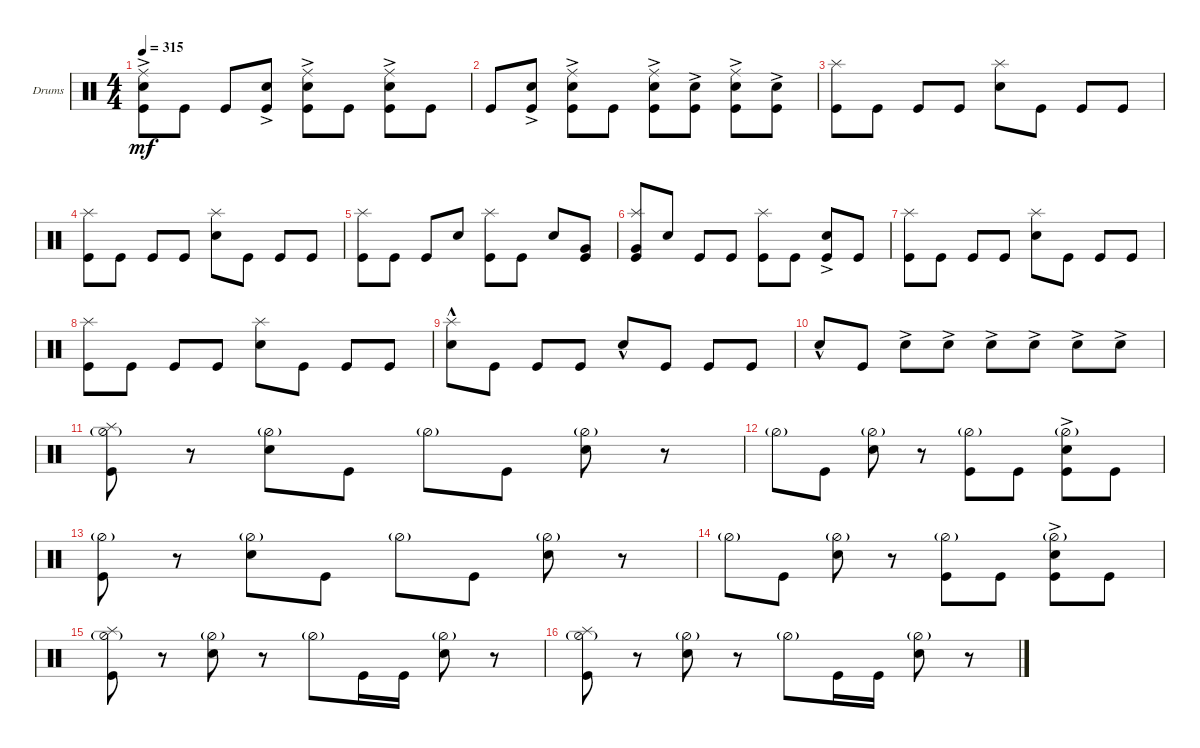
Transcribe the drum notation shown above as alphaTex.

\bracketExtendMode groupsimilarinstruments
\firstSystemTrackNameOrientation horizontal
\otherSystemsTrackNameOrientation horizontal
\track ("Drumkit" "Drums") {instrument percussion}
\staff {score}
\articulation defaults
\ts (4 4)
\tempo 315
\clef neutral
\ks c
("Snare (hit) 2"{ac} "Kick (hit)" "Ride (middle)").8{dy mf} "Kick (hit)".8 "Kick (hit)".8 ("Snare (hit) 2"{ac} "Kick (hit)").8 ("Snare (hit) 2"{ac} "Kick (hit)" "Ride (middle)").8 "Kick (hit)".8 ("Snare (hit) 2"{ac} "Kick (hit)" "Ride (middle)").8 "Kick (hit)".8 |
"Kick (hit)".8 ("Snare (hit) 2"{ac} "Kick (hit)").8 ("Snare (hit) 2"{ac} "Kick (hit)" "Ride (middle)").8 "Kick (hit)".8 ("Snare (hit) 2"{ac} "Kick (hit)" "Ride (middle)").8 ("Kick (hit)" "Snare (hit) 2"{ac}).8 ("Snare (hit) 2"{ac} "Kick (hit)" "Ride (middle)").8 ("Kick (hit)" "Snare (hit) 2"{ac}).8 |
("Kick (hit)" "Splash (hit)").8 "Kick (hit)".8 "Kick (hit)".8 "Kick (hit)".8 ("Snare (hit) 2" "Splash (hit)").8 "Kick (hit)".8 "Kick (hit)".8 "Kick (hit)".8 |
("Kick (hit)" "Splash (hit)").8 "Kick (hit)".8 "Kick (hit)".8 "Kick (hit)".8 ("Snare (hit) 2" "Splash (hit)").8 "Kick (hit)".8 "Kick (hit)".8 "Kick (hit)".8 |
("Kick (hit)" "Splash (hit)").8 "Kick (hit)".8 "Kick (hit)".8 "Snare (hit) 2".8 ("Kick (hit)" "Splash (hit)").8 "Kick (hit)".8 "Snare (hit) 2".8 ("Very Low Tom (hit)" "Kick (hit)").8 |
("Very Low Tom (hit)" "Kick (hit)" "Splash (hit)").8 "Snare (hit) 2".8 "Kick (hit)".8 "Kick (hit)".8 ("Splash (hit)" "Kick (hit)").8 "Kick (hit)".8 ("Kick (hit)" "Snare (hit) 2"{ac}).8 "Kick (hit)".8 |
("Kick (hit)" "Splash (hit)").8 "Kick (hit)".8 "Kick (hit)".8 "Kick (hit)".8 ("Snare (hit) 2" "Splash (hit)").8 "Kick (hit)".8 "Kick (hit)".8 "Kick (hit)".8 |
("Kick (hit)" "Splash (hit)").8 "Kick (hit)".8 "Kick (hit)".8 "Kick (hit)".8 ("Snare (hit) 2" "Splash (hit)").8 "Kick (hit)".8 "Kick (hit)".8 "Kick (hit)".8 |
("Snare (hit) 2"{hac} "Splash (hit)").8 "Kick (hit)".8 "Kick (hit)".8 "Kick (hit)".8 "Snare (hit) 2"{hac}.8 "Kick (hit)".8 "Kick (hit)".8 "Kick (hit)".8 |
"Snare (hit) 2"{hac}.8 "Kick (hit)".8 "Snare (hit) 2"{ac}.8 "Snare (hit) 2"{ac}.8 "Snare (hit) 2"{ac}.8 "Snare (hit) 2"{ac}.8 "Snare (hit) 2"{ac}.8 "Snare (hit) 2"{ac}.8 |
("Kick (hit)" "Hi-Hat (half)"{g} "Splash (hit)").8 r.8 ("Snare (hit) 2" "Hi-Hat (half)"{g}).8 "Kick (hit)".8 "Hi-Hat (half)"{g}.8 "Kick (hit)".8 ("Snare (hit) 2" "Hi-Hat (half)"{g}).8 r.8 |
"Hi-Hat (half)"{g}.8 "Kick (hit)".8 ("Snare (hit) 2" "Hi-Hat (half)"{g}).8 r.8 ("Kick (hit)" "Hi-Hat (half)"{g}).8 "Kick (hit)".8 ("Snare (hit) 2"{ac} "Kick (hit)" "Hi-Hat (half)"{g}).8 "Kick (hit)".8 |
("Kick (hit)" "Hi-Hat (half)"{g}).8 r.8 ("Snare (hit) 2" "Hi-Hat (half)"{g}).8 "Kick (hit)".8 "Hi-Hat (half)"{g}.8 "Kick (hit)".8 ("Snare (hit) 2" "Hi-Hat (half)"{g}).8 r.8 |
"Hi-Hat (half)"{g}.8 "Kick (hit)".8 ("Snare (hit) 2" "Hi-Hat (half)"{g}).8 r.8 ("Kick (hit)" "Hi-Hat (half)"{g}).8 "Kick (hit)".8 ("Snare (hit) 2"{ac} "Kick (hit)" "Hi-Hat (half)"{g}).8 "Kick (hit)".8 |
("Kick (hit)" "Splash (hit)" "Hi-Hat (half)"{g}).8 r.8 ("Snare (hit) 2" "Hi-Hat (half)"{g}).8 r.8 "Hi-Hat (half)"{g}.8 "Kick (hit)".16 "Kick (hit)".16 ("Snare (hit) 2" "Hi-Hat (half)"{g}).8 r.8 |
("Kick (hit)" "Splash (hit)" "Hi-Hat (half)"{g}).8 r.8 ("Snare (hit) 2" "Hi-Hat (half)"{g}).8 r.8 "Hi-Hat (half)"{g}.8 "Kick (hit)".16 "Kick (hit)".16 ("Snare (hit) 2" "Hi-Hat (half)"{g}).8 r.8
